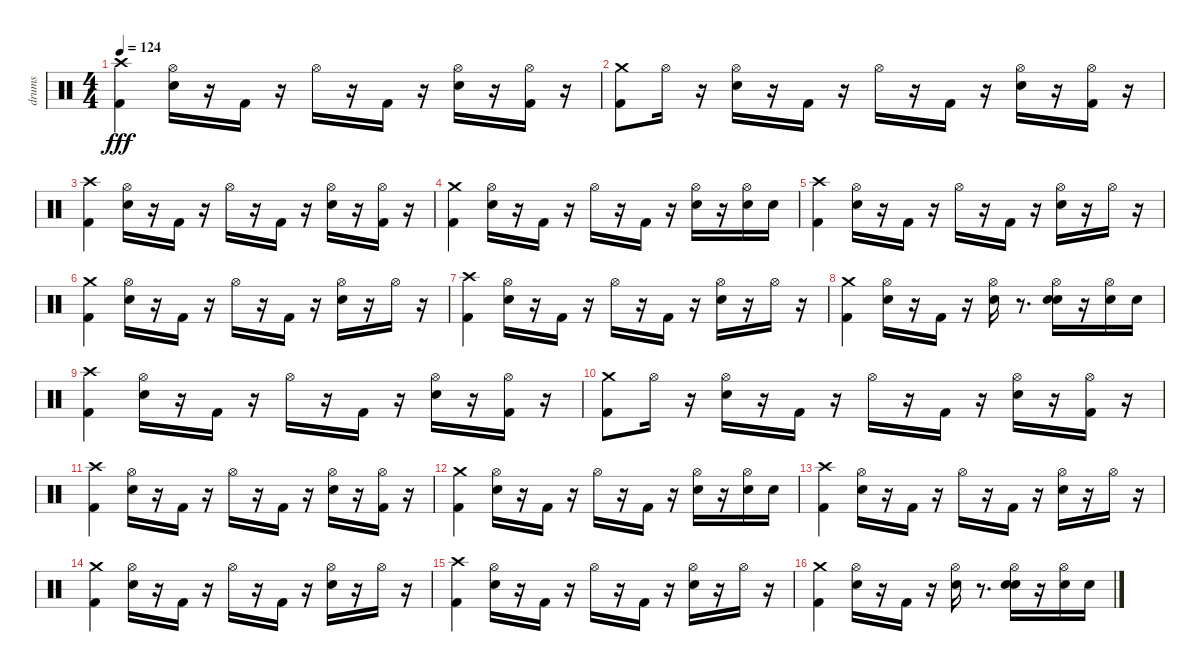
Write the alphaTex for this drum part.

\track ("drums" "drums") {instrument percussion}
\staff {score}
\articulation defaults
\ts (4 4)
\tempo 124
\clef neutral
\ks c
("Kick (hit) 2" "Crash high (hit)").4{dy fff} ("Snare (hit) 2" "Hi-Hat (open)").16 r.16 "Kick (hit) 2".16 r.16 "Hi-Hat (open)".16 r.16 "Kick (hit) 2".16 r.16 ("Snare (hit) 2" "Hi-Hat (open)").16 r.16 ("Hi-Hat (open)" "Kick (hit) 2").16 r.16 |
("Kick (hit) 2" "Crash medium (hit)").8 "Hi-Hat (open)".16 r.16 ("Snare (hit) 2" "Hi-Hat (open)").16 r.16 "Kick (hit) 2".16 r.16 "Hi-Hat (open)".16 r.16 "Kick (hit) 2".16 r.16 ("Snare (hit) 2" "Hi-Hat (open)").16 r.16 ("Kick (hit) 2" "Hi-Hat (open)").16 r.16 |
("Kick (hit) 2" "Crash high (hit)").4 ("Snare (hit) 2" "Hi-Hat (open)").16 r.16 "Kick (hit) 2".16 r.16 "Hi-Hat (open)".16 r.16 "Kick (hit) 2".16 r.16 ("Snare (hit) 2" "Hi-Hat (open)").16 r.16 ("Hi-Hat (open)" "Kick (hit) 2").16 r.16 |
("Kick (hit) 2" "Crash medium (hit)").4 ("Snare (hit) 2" "Hi-Hat (open)").16 r.16 "Kick (hit) 2".16 r.16 "Hi-Hat (open)".16 r.16 "Kick (hit) 2".16 r.16 ("Snare (hit) 2" "Hi-Hat (open)").16 r.16 ("Hi-Hat (open)" "Snare (hit) 2").16 "Snare (hit) 2".16 |
("Kick (hit) 2" "Crash high (hit)").4 ("Snare (hit) 2" "Hi-Hat (open)").16 r.16 "Kick (hit) 2".16 r.16 "Hi-Hat (open)".16 r.16 "Kick (hit) 2".16 r.16 ("Snare (hit) 2" "Hi-Hat (open)").16 r.16 "Hi-Hat (open)".16 r.16 |
("Kick (hit) 2" "Crash medium (hit)").4 ("Snare (hit) 2" "Hi-Hat (open)").16 r.16 "Kick (hit) 2".16 r.16 "Hi-Hat (open)".16 r.16 "Kick (hit) 2".16 r.16 ("Snare (hit) 2" "Hi-Hat (open)").16 r.16 "Hi-Hat (open)".16 r.16 |
("Kick (hit) 2" "Crash high (hit)").4 ("Snare (hit) 2" "Hi-Hat (open)").16 r.16 "Kick (hit) 2".16 r.16 "Hi-Hat (open)".16 r.16 "Kick (hit) 2".16 r.16 ("Snare (hit) 2" "Hi-Hat (open)").16 r.16 "Hi-Hat (open)".16 r.16 |
("Kick (hit) 2" "Crash medium (hit)").4 ("Snare (hit) 2" "Hi-Hat (open)").16 r.16 "Kick (hit) 2".16 r.16 ("Hi-Hat (open)" "Snare (hit) 2").16 r.8{d} ("Snare (hit) 2" "Snare (hit) 2" "Hi-Hat (open)").16 r.16 ("Snare (hit) 2" "Hi-Hat (open)").16 "Snare (hit) 2".16 |
("Kick (hit) 2" "Crash high (hit)").4 ("Snare (hit) 2" "Hi-Hat (open)").16 r.16 "Kick (hit) 2".16 r.16 "Hi-Hat (open)".16 r.16 "Kick (hit) 2".16 r.16 ("Snare (hit) 2" "Hi-Hat (open)").16 r.16 ("Hi-Hat (open)" "Kick (hit) 2").16 r.16 |
("Kick (hit) 2" "Crash medium (hit)").8 "Hi-Hat (open)".16 r.16 ("Snare (hit) 2" "Hi-Hat (open)").16 r.16 "Kick (hit) 2".16 r.16 "Hi-Hat (open)".16 r.16 "Kick (hit) 2".16 r.16 ("Snare (hit) 2" "Hi-Hat (open)").16 r.16 ("Kick (hit) 2" "Hi-Hat (open)").16 r.16 |
("Kick (hit) 2" "Crash high (hit)").4 ("Snare (hit) 2" "Hi-Hat (open)").16 r.16 "Kick (hit) 2".16 r.16 "Hi-Hat (open)".16 r.16 "Kick (hit) 2".16 r.16 ("Snare (hit) 2" "Hi-Hat (open)").16 r.16 ("Hi-Hat (open)" "Kick (hit) 2").16 r.16 |
("Kick (hit) 2" "Crash medium (hit)").4 ("Snare (hit) 2" "Hi-Hat (open)").16 r.16 "Kick (hit) 2".16 r.16 "Hi-Hat (open)".16 r.16 "Kick (hit) 2".16 r.16 ("Snare (hit) 2" "Hi-Hat (open)").16 r.16 ("Hi-Hat (open)" "Snare (hit) 2").16 "Snare (hit) 2".16 |
("Kick (hit) 2" "Crash high (hit)").4 ("Snare (hit) 2" "Hi-Hat (open)").16 r.16 "Kick (hit) 2".16 r.16 "Hi-Hat (open)".16 r.16 "Kick (hit) 2".16 r.16 ("Snare (hit) 2" "Hi-Hat (open)").16 r.16 "Hi-Hat (open)".16 r.16 |
("Kick (hit) 2" "Crash medium (hit)").4 ("Snare (hit) 2" "Hi-Hat (open)").16 r.16 "Kick (hit) 2".16 r.16 "Hi-Hat (open)".16 r.16 "Kick (hit) 2".16 r.16 ("Snare (hit) 2" "Hi-Hat (open)").16 r.16 "Hi-Hat (open)".16 r.16 |
("Kick (hit) 2" "Crash high (hit)").4 ("Snare (hit) 2" "Hi-Hat (open)").16 r.16 "Kick (hit) 2".16 r.16 "Hi-Hat (open)".16 r.16 "Kick (hit) 2".16 r.16 ("Snare (hit) 2" "Hi-Hat (open)").16 r.16 "Hi-Hat (open)".16 r.16 |
("Kick (hit) 2" "Crash medium (hit)").4 ("Snare (hit) 2" "Hi-Hat (open)").16 r.16 "Kick (hit) 2".16 r.16 ("Hi-Hat (open)" "Snare (hit) 2").16 r.8{d} ("Snare (hit) 2" "Snare (hit) 2" "Hi-Hat (open)").16 r.16 ("Snare (hit) 2" "Hi-Hat (open)").16 "Snare (hit) 2".16
